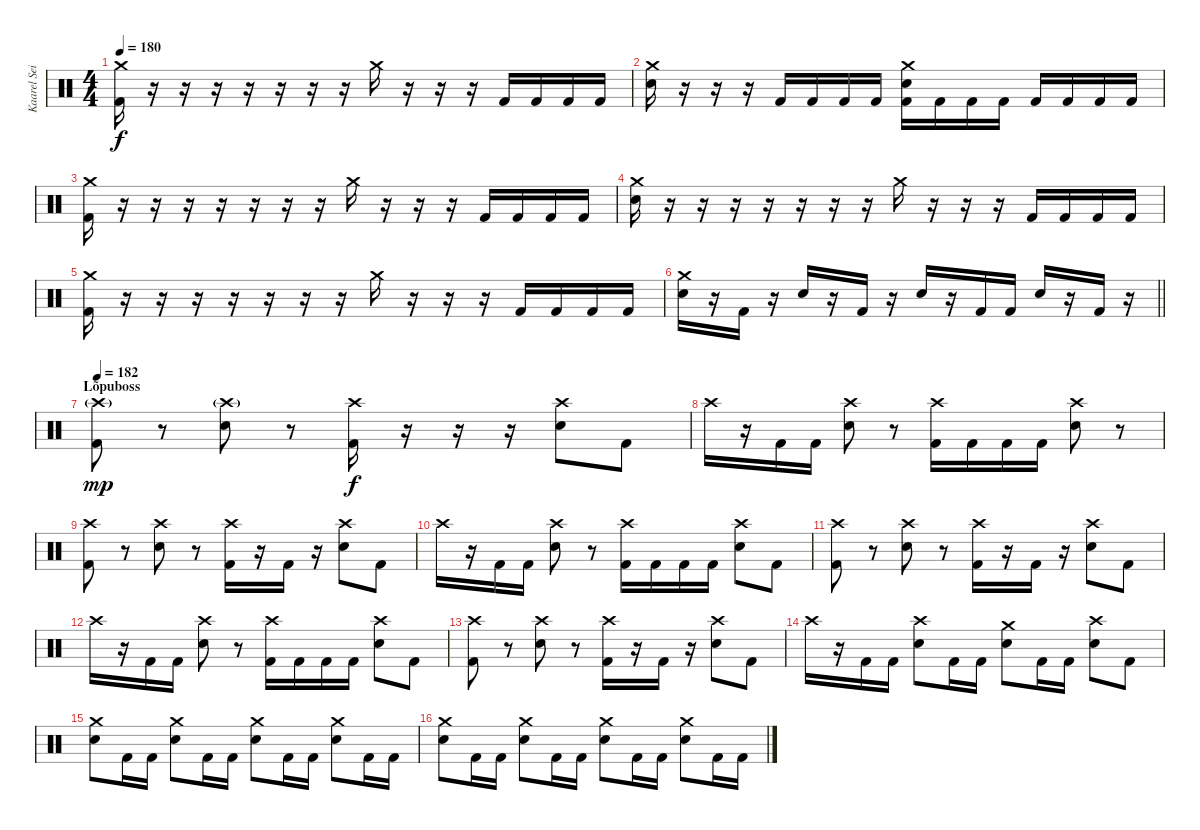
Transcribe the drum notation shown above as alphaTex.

\track ("Kaarel Sein" "Kaarel Sei") {instrument percussion}
\staff {score}
\articulation defaults
\ts (4 4)
\tempo 180
\clef neutral
\ks c
("Crash medium (hit)" "Kick (hit) 2").16{dy f} r.16 r.16 r.16 r.16 r.16 r.16 r.16 "Crash medium (hit)".16 r.16 r.16 r.16 "Kick (hit) 2".16 "Kick (hit) 2".16 "Kick (hit) 2".16 "Kick (hit) 2".16 |
("Crash medium (hit)" "Electric Snare (hit)").16 r.16 r.16 r.16 "Kick (hit) 2".16 "Kick (hit) 2".16 "Kick (hit) 2".16 "Kick (hit) 2".16 ("Crash medium (hit)" "Electric Snare (hit)" "Kick (hit) 2").16 "Kick (hit) 2".16 "Kick (hit) 2".16 "Kick (hit) 2".16 "Kick (hit) 2".16 "Kick (hit) 2".16 "Kick (hit) 2".16 "Kick (hit) 2".16 |
("Crash medium (hit)" "Kick (hit) 2").16 r.16 r.16 r.16 r.16 r.16 r.16 r.16 "Crash medium (hit)".16 r.16 r.16 r.16 "Kick (hit) 2".16 "Kick (hit) 2".16 "Kick (hit) 2".16 "Kick (hit) 2".16 |
("Crash medium (hit)" "Electric Snare (hit)").16 r.16 r.16 r.16 r.16 r.16 r.16 r.16 "Crash medium (hit)".16 r.16 r.16 r.16 "Kick (hit) 2".16 "Kick (hit) 2".16 "Kick (hit) 2".16 "Kick (hit) 2".16 |
("Crash medium (hit)" "Kick (hit) 2").16 r.16 r.16 r.16 r.16 r.16 r.16 r.16 "Crash medium (hit)".16 r.16 r.16 r.16 "Kick (hit) 2".16 "Kick (hit) 2".16 "Kick (hit) 2".16 "Kick (hit) 2".16 |
\barLineRight lightlight
("Crash medium (hit)" "Electric Snare (hit)").16 r.16 "Kick (hit) 2".16 r.16 "Electric Snare (hit)".16 r.16 "Kick (hit) 2".16 r.16 "Electric Snare (hit)".16 r.16 "Kick (hit) 2".16 "Kick (hit) 2".16 "Electric Snare (hit)".16 r.16 "Kick (hit) 2".16 r.16 |
\section ("" "Lõpuboss")
\tempo 182
("Crash high (hit)"{g} "Kick (hit) 2").8{dy mp} r.8 ("Crash high (hit)"{g} "Electric Snare (hit)").8 r.8 ("Crash high (hit)" "Kick (hit) 2").16{dy f} r.16 r.16 r.16 ("Crash high (hit)" "Electric Snare (hit)").8 "Kick (hit) 2".8 |
"Crash high (hit)".16 r.16 "Kick (hit) 2".16 "Kick (hit) 2".16 ("Crash high (hit)" "Electric Snare (hit)").8 r.8 ("Crash high (hit)" "Kick (hit) 2").16 "Kick (hit) 2".16 "Kick (hit) 2".16 "Kick (hit) 2".16 ("Crash high (hit)" "Electric Snare (hit)").8 r.8 |
("Crash high (hit)" "Kick (hit) 2").8 r.8 ("Crash high (hit)" "Electric Snare (hit)").8 r.8 ("Crash high (hit)" "Kick (hit) 2").16 r.16 "Kick (hit) 2".16 r.16 ("Crash high (hit)" "Electric Snare (hit)").8 "Kick (hit) 2".8 |
"Crash high (hit)".16 r.16 "Kick (hit) 2".16 "Kick (hit) 2".16 ("Crash high (hit)" "Electric Snare (hit)").8 r.8 ("Crash high (hit)" "Kick (hit) 2").16 "Kick (hit) 2".16 "Kick (hit) 2".16 "Kick (hit) 2".16 ("Crash high (hit)" "Electric Snare (hit)").8 "Kick (hit) 2".8 |
("Crash high (hit)" "Kick (hit) 2").8 r.8 ("Crash high (hit)" "Electric Snare (hit)").8 r.8 ("Crash high (hit)" "Kick (hit) 2").16 r.16 "Kick (hit) 2".16 r.16 ("Crash high (hit)" "Electric Snare (hit)").8 "Kick (hit) 2".8 |
"Crash high (hit)".16 r.16 "Kick (hit) 2".16 "Kick (hit) 2".16 ("Crash high (hit)" "Electric Snare (hit)").8 r.8 ("Crash high (hit)" "Kick (hit) 2").16 "Kick (hit) 2".16 "Kick (hit) 2".16 "Kick (hit) 2".16 ("Crash high (hit)" "Electric Snare (hit)").8 "Kick (hit) 2".8 |
("Crash high (hit)" "Kick (hit) 2").8 r.8 ("Crash high (hit)" "Electric Snare (hit)").8 r.8 ("Crash high (hit)" "Kick (hit) 2").16 r.16 "Kick (hit) 2".16 r.16 ("Crash high (hit)" "Electric Snare (hit)").8 "Kick (hit) 2".8 |
"Crash high (hit)".16 r.16 "Kick (hit) 2".16 "Kick (hit) 2".16 ("Crash high (hit)" "Electric Snare (hit)").8 "Kick (hit) 2".16 "Kick (hit) 2".16 ("Crash medium (hit)" "Electric Snare (hit)").8 "Kick (hit) 2".16 "Kick (hit) 2".16 ("Crash high (hit)" "Electric Snare (hit)").8 "Kick (hit) 2".8 |
("Crash medium (hit)" "Electric Snare (hit)").8 "Kick (hit) 2".16 "Kick (hit) 2".16 ("Crash medium (hit)" "Electric Snare (hit)").8 "Kick (hit) 2".16 "Kick (hit) 2".16 ("Crash medium (hit)" "Electric Snare (hit)").8 "Kick (hit) 2".16 "Kick (hit) 2".16 ("Crash medium (hit)" "Electric Snare (hit)").8 "Kick (hit) 2".16 "Kick (hit) 2".16 |
("Crash medium (hit)" "Electric Snare (hit)").8 "Kick (hit) 2".16 "Kick (hit) 2".16 ("Crash medium (hit)" "Electric Snare (hit)").8 "Kick (hit) 2".16 "Kick (hit) 2".16 ("Crash medium (hit)" "Electric Snare (hit)").8 "Kick (hit) 2".16 "Kick (hit) 2".16 ("Crash medium (hit)" "Electric Snare (hit)").8 "Kick (hit) 2".16 "Kick (hit) 2".16
